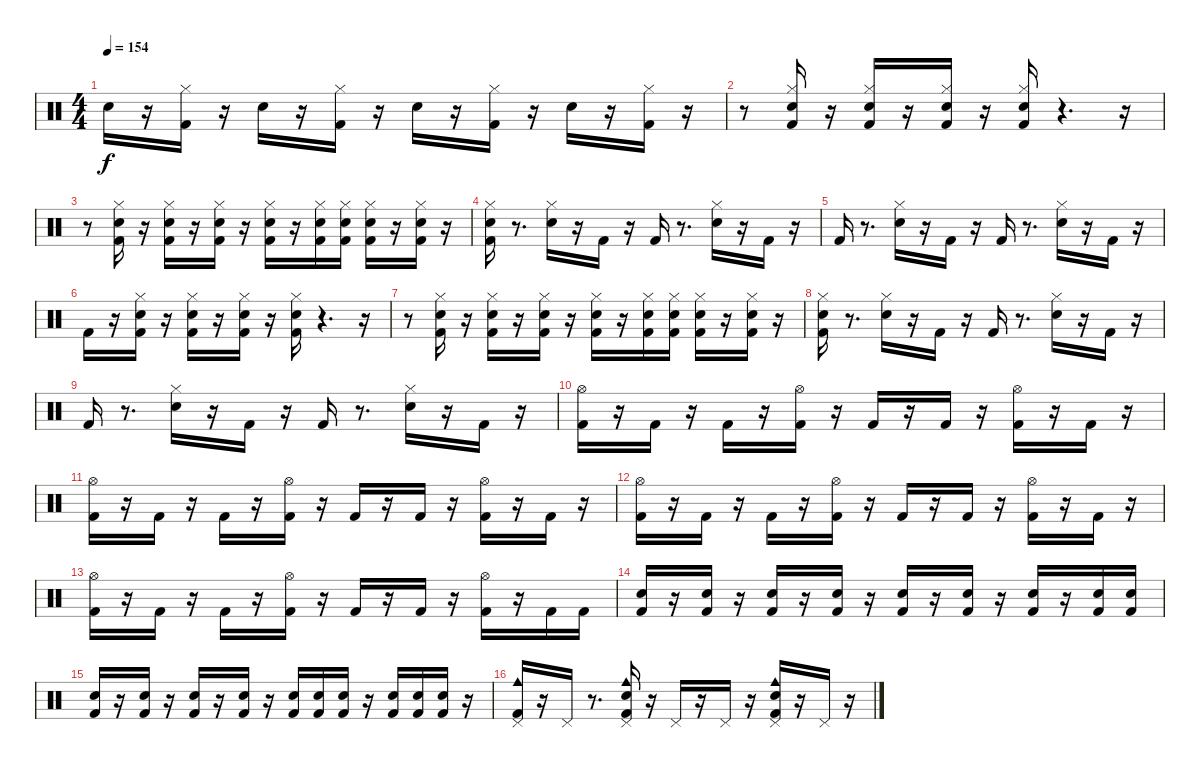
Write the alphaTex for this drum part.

\track "" {instrument percussion}
\staff {score}
\articulation defaults
\ts (4 4)
\tempo 154
\clef neutral
\ks c "Snare (hit) 2".16{dy f}
r.16 ("Hi-Hat (closed)" "Kick (hit) 2").16 r.16 "Snare (hit) 2".16 r.16 ("Hi-Hat (closed)" "Kick (hit) 2").16 r.16 "Snare (hit) 2".16 r.16 ("Kick (hit) 2" "Hi-Hat (closed)").16 r.16 "Snare (hit) 2".16 r.16 ("Kick (hit) 2" "Hi-Hat (closed)").16 r.16 |
r.8 ("Kick (hit) 2" "Hi-Hat (closed)" "Snare (hit) 2").16 r.16 ("Snare (hit) 2" "Kick (hit) 2" "Hi-Hat (closed)").16 r.16 ("Hi-Hat (closed)" "Snare (hit) 2" "Kick (hit) 2").16 r.16 ("Kick (hit) 2" "Hi-Hat (closed)" "Snare (hit) 2").16 r.4{d} r.16 |
r.8 ("Electric Snare (hit)" "Kick (hit) 2" "Hi-Hat (closed)").16 r.16 ("Kick (hit) 2" "Hi-Hat (closed)" "Electric Snare (hit)").16 r.16 ("Electric Snare (hit)" "Kick (hit) 2" "Hi-Hat (closed)").16 r.16 ("Hi-Hat (closed)" "Kick (hit) 2" "Electric Snare (hit)").16 r.16 ("Hi-Hat (closed)" "Kick (hit) 2" "Electric Snare (hit)").16 ("Electric Snare (hit)" "Kick (hit) 2" "Hi-Hat (closed)").16 ("Kick (hit) 2" "Hi-Hat (closed)" "Electric Snare (hit)").16 r.16 ("Kick (hit) 2" "Electric Snare (hit)" "Hi-Hat (closed)").16 r.16 |
("Hi-Hat (closed)" "Electric Snare (hit)" "Kick (hit) 2").16 r.8{d} ("Hi-Hat (closed)" "Electric Snare (hit)").16 r.16 "Kick (hit) 2".16 r.16 "Kick (hit) 2".16 r.8{d} ("Hi-Hat (closed)" "Electric Snare (hit)").16 r.16 "Kick (hit) 2".16 r.16 |
"Kick (hit) 2".16 r.8{d} ("Electric Snare (hit)" "Hi-Hat (closed)").16 r.16 "Kick (hit) 2".16 r.16 "Kick (hit) 2".16 r.8{d} ("Hi-Hat (closed)" "Electric Snare (hit)").16 r.16 "Kick (hit) 2".16 r.16 |
"Kick (hit) 2".16 r.16 ("Hi-Hat (closed)" "Electric Snare (hit)" "Kick (hit) 2").16 r.16 ("Hi-Hat (closed)" "Electric Snare (hit)" "Kick (hit) 2").16 r.16 ("Electric Snare (hit)" "Hi-Hat (closed)" "Kick (hit) 2").16 r.16 ("Kick (hit) 2" "Electric Snare (hit)" "Hi-Hat (closed)").16 r.4{d} r.16 |
r.8 ("Electric Snare (hit)" "Hi-Hat (closed)" "Kick (hit) 2").16 r.16 ("Hi-Hat (closed)" "Kick (hit) 2" "Electric Snare (hit)").16 r.16 ("Kick (hit) 2" "Electric Snare (hit)" "Hi-Hat (closed)").16 r.16 ("Kick (hit) 2" "Electric Snare (hit)" "Hi-Hat (closed)").16 r.16 ("Hi-Hat (closed)" "Electric Snare (hit)" "Kick (hit) 2").16 ("Hi-Hat (closed)" "Electric Snare (hit)" "Kick (hit) 2").16 ("Kick (hit) 2" "Electric Snare (hit)" "Hi-Hat (closed)").16 r.16 ("Hi-Hat (closed)" "Electric Snare (hit)" "Kick (hit) 2").16 r.16 |
("Electric Snare (hit)" "Hi-Hat (closed)" "Kick (hit) 2").16 r.8{d} ("Hi-Hat (closed)" "Electric Snare (hit)").16 r.16 "Kick (hit) 2".16 r.16 "Kick (hit) 2".16 r.8{d} ("Hi-Hat (closed)" "Electric Snare (hit)").16 r.16 "Kick (hit) 2".16 r.16 |
"Kick (hit) 2".16 r.8{d} ("Hi-Hat (closed)" "Electric Snare (hit)").16 r.16 "Kick (hit) 2".16 r.16 "Kick (hit) 2".16 r.8{d} ("Hi-Hat (closed)" "Electric Snare (hit)").16 r.16 "Kick (hit) 2".16 r.16 |
("Kick (hit) 2" "Hi-Hat (open)").16 r.16 "Kick (hit) 2".16 r.16 "Kick (hit) 2".16 r.16 ("Hi-Hat (open)" "Kick (hit) 2").16 r.16 "Kick (hit) 2".16 r.16 "Kick (hit) 2".16 r.16 ("Hi-Hat (open)" "Kick (hit) 2").16 r.16 "Kick (hit) 2".16 r.16 |
("Hi-Hat (open)" "Kick (hit) 2").16 r.16 "Kick (hit) 2".16 r.16 "Kick (hit) 2".16 r.16 ("Kick (hit) 2" "Hi-Hat (open)").16 r.16 "Kick (hit) 2".16 r.16 "Kick (hit) 2".16 r.16 ("Kick (hit) 2" "Hi-Hat (open)").16 r.16 "Kick (hit) 2".16 r.16 |
("Kick (hit) 2" "Hi-Hat (open)").16 r.16 "Kick (hit) 2".16 r.16 "Kick (hit) 2".16 r.16 ("Hi-Hat (open)" "Kick (hit) 2").16 r.16 "Kick (hit) 2".16 r.16 "Kick (hit) 2".16 r.16 ("Kick (hit) 2" "Hi-Hat (open)").16 r.16 "Kick (hit) 2".16 r.16 |
("Hi-Hat (open)" "Kick (hit) 2").16 r.16 "Kick (hit) 2".16 r.16 "Kick (hit) 2".16 r.16 ("Hi-Hat (open)" "Kick (hit) 2").16 r.16 "Kick (hit) 2".16 r.16 "Kick (hit) 2".16 r.16 ("Hi-Hat (open)" "Kick (hit) 2").16 r.16 "Kick (hit) 2".16 "Kick (hit) 2".16 |
("Kick (hit) 2" "Electric Snare (hit)").16 r.16 ("Electric Snare (hit)" "Kick (hit) 2").16 r.16 ("Electric Snare (hit)" "Kick (hit) 2").16 r.16 ("Electric Snare (hit)" "Kick (hit) 2").16 r.16 ("Electric Snare (hit)" "Kick (hit) 2").16 r.16 ("Kick (hit) 2" "Electric Snare (hit)").16 r.16 ("Electric Snare (hit)" "Kick (hit) 2").16 r.16 ("Kick (hit) 2" "Electric Snare (hit)").16 ("Kick (hit) 2" "Electric Snare (hit)").16 |
("Electric Snare (hit)" "Kick (hit) 2").16 r.16 ("Kick (hit) 2" "Electric Snare (hit)").16 r.16 ("Electric Snare (hit)" "Kick (hit) 2").16 r.16 ("Kick (hit) 2" "Electric Snare (hit)").16 r.16 ("Electric Snare (hit)" "Kick (hit) 2").16 ("Electric Snare (hit)" "Kick (hit) 2").16 ("Kick (hit) 2" "Electric Snare (hit)").16 r.16 ("Electric Snare (hit)" "Kick (hit) 2").16 ("Kick (hit) 2" "Electric Snare (hit)").16 ("Electric Snare (hit)" "Kick (hit) 2").16 r.16 |
("Cowbell medium (hit)" "Pedal Hi-Hat (hit)" "Kick (hit) 2").16 r.16 "Pedal Hi-Hat (hit)".16 r.8{d} ("Cowbell medium (hit)" "Pedal Hi-Hat (hit)" "Electric Snare (hit)" "Kick (hit) 2").16 r.16 "Pedal Hi-Hat (hit)".16 r.16 "Pedal Hi-Hat (hit)".16 r.16 ("Pedal Hi-Hat (hit)" "Kick (hit) 2" "Cowbell medium (hit)" "Electric Snare (hit)").16 r.16 "Pedal Hi-Hat (hit)".16 r.16
